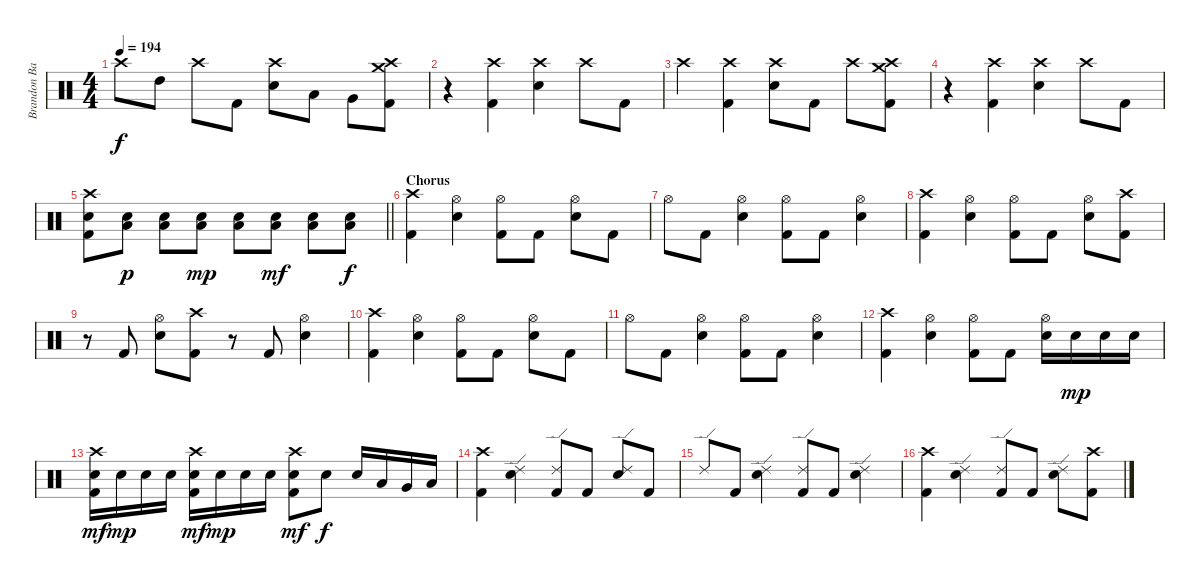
\track ("Brandon Barnes - Drums" "Brandon Ba") {instrument percussion}
\staff {score}
\articulation defaults
\ts (4 4)
\tempo 194
\clef neutral
\ks c "Crash high (hit)".8{dy f} "High Tom (hit)".8 "Crash high (hit)".8 "Kick (hit) 2".8
("Snare (hit) 2" "Crash high (hit)").8 "Low Tom (hit)".8 "Very Low Tom (hit)".8 ("Crash high (hit)" "Kick (hit) 2" "Crash medium (hit)").8 |
r.4 ("Crash high (hit)" "Kick (hit) 2").4 ("Crash high (hit)" "Snare (hit) 2").4 "Crash high (hit)".8 "Kick (hit) 2".8 |
"Crash high (hit)".4 ("Kick (hit) 2" "Crash high (hit)").4 ("Snare (hit) 2" "Crash high (hit)").8 "Kick (hit) 2".8 "Crash high (hit)".8 ("Crash high (hit)" "Kick (hit) 2" "Crash medium (hit)").8 |
r.4 ("Crash high (hit)" "Kick (hit) 2").4 ("Crash high (hit)" "Snare (hit) 2").4 "Crash high (hit)".8 "Kick (hit) 2".8 |
\barLineRight lightlight
("Crash high (hit)" "Kick (hit) 2" "Snare (hit) 2").8 ("Snare (hit) 2" "Low Floor Tom (hit)").8{dy p} ("Snare (hit) 2" "Low Floor Tom (hit)").8 ("Snare (hit) 2" "Low Floor Tom (hit)").8{dy mp} ("Snare (hit) 2" "Low Floor Tom (hit)").8 ("Snare (hit) 2" "Low Floor Tom (hit)").8{dy mf} ("Snare (hit) 2" "Low Floor Tom (hit)").8 ("Snare (hit) 2" "Low Floor Tom (hit)").8{dy f} |
\section ("" "Chorus")
("Crash high (hit)" "Kick (hit) 2").4 ("Snare (hit) 2" "Hi-Hat (open)").4 ("Kick (hit) 2" "Hi-Hat (open)").8 "Kick (hit) 2".8 ("Snare (hit) 2" "Hi-Hat (open)").8 "Kick (hit) 2".8 |
"Hi-Hat (open)".8 "Kick (hit) 2".8 ("Snare (hit) 2" "Hi-Hat (open)").4 ("Kick (hit) 2" "Hi-Hat (open)").8 "Kick (hit) 2".8 ("Snare (hit) 2" "Hi-Hat (open)").4 |
("Crash high (hit)" "Kick (hit) 2").4 ("Snare (hit) 2" "Hi-Hat (open)").4 ("Kick (hit) 2" "Hi-Hat (open)").8 "Kick (hit) 2".8 ("Snare (hit) 2" "Hi-Hat (open)").8 ("Kick (hit) 2" "Crash high (hit)").8 |
r.8 "Kick (hit) 2".8 ("Snare (hit) 2" "Hi-Hat (open)").8 ("Kick (hit) 2" "Crash high (hit)").8 r.8 "Kick (hit) 2".8 ("Snare (hit) 2" "Hi-Hat (open)").4 |
("Crash high (hit)" "Kick (hit) 2").4 ("Snare (hit) 2" "Hi-Hat (open)").4 ("Kick (hit) 2" "Hi-Hat (open)").8 "Kick (hit) 2".8 ("Snare (hit) 2" "Hi-Hat (open)").8 "Kick (hit) 2".8 |
"Hi-Hat (open)".8 "Kick (hit) 2".8 ("Snare (hit) 2" "Hi-Hat (open)").4 ("Kick (hit) 2" "Hi-Hat (open)").8 "Kick (hit) 2".8 ("Snare (hit) 2" "Hi-Hat (open)").4 |
("Crash high (hit)" "Kick (hit) 2").4 ("Snare (hit) 2" "Hi-Hat (open)").4 ("Kick (hit) 2" "Hi-Hat (open)").8 "Kick (hit) 2".8 ("Snare (hit) 2" "Hi-Hat (open)").16 "Snare (hit) 2".16{dy mp} "Snare (hit) 2".16 "Snare (hit) 2".16 |
("Snare (hit) 2" "Crash high (hit)" "Kick (hit) 2").16{dy mf} "Snare (hit) 2".16{dy mp} "Snare (hit) 2".16 "Snare (hit) 2".16 ("Snare (hit) 2" "Crash high (hit)" "Kick (hit) 2").16{dy mf} "Snare (hit) 2".16{dy mp} "Snare (hit) 2".16 "Snare (hit) 2".16 ("Crash high (hit)" "Kick (hit) 2" "Snare (hit) 2").8{dy mf} "Snare (hit) 2".8{dy f} "Snare (hit) 2".16 "Low Tom (hit)".16 "Very Low Tom (hit)".16 "Low Floor Tom (hit)".16 |
("Crash high (hit)" "Kick (hit) 2").4 ("Snare (hit) 2" "Ride (edge) 2").4 ("Kick (hit) 2" "Ride (edge) 2").8 "Kick (hit) 2".8 ("Snare (hit) 2" "Ride (edge) 2").8 "Kick (hit) 2".8 |
"Ride (edge) 2".8 "Kick (hit) 2".8 ("Snare (hit) 2" "Ride (edge) 2").4 ("Kick (hit) 2" "Ride (edge) 2").8 "Kick (hit) 2".8 ("Snare (hit) 2" "Ride (edge) 2").4 |
("Crash high (hit)" "Kick (hit) 2").4 ("Snare (hit) 2" "Ride (edge) 2").4 ("Kick (hit) 2" "Ride (edge) 2").8 "Kick (hit) 2".8 ("Snare (hit) 2" "Ride (edge) 2").8 ("Kick (hit) 2" "Crash high (hit)").8
